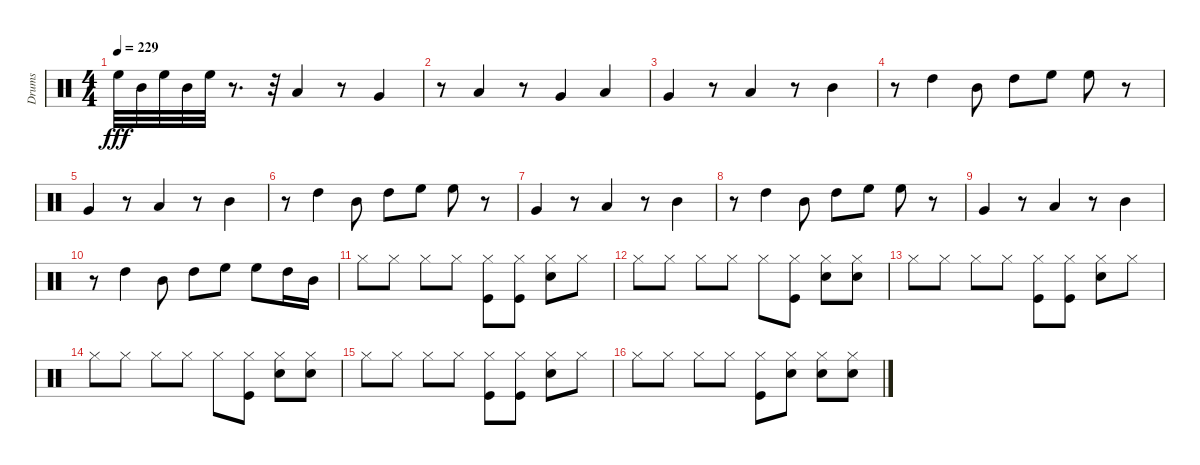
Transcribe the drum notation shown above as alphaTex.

\track ("Drums" "Drums") {instrument percussion}
\staff {score}
\articulation defaults
\ts (4 4)
\tempo 229
\clef neutral
\ks c "High Floor Tom (hit)".32{dy fff} "Mid Tom (hit)".32 "High Floor Tom (hit)".32 "Mid Tom (hit)".32 "High Floor Tom (hit)".32
r.8{d} r.32 "Low Tom (hit)".4 r.8 "Very Low Tom (hit)".4 |
r.8 "Low Floor Tom (hit)".4 r.8 "Very Low Tom (hit)".4 "Low Floor Tom (hit)".4 |
"Very Low Tom (hit)".4 r.8 "Low Tom (hit)".4 r.8 "Mid Tom (hit)".4 |
r.8 "High Tom (hit)".4 "Mid Tom (hit)".8 "High Tom (hit)".8 "High Floor Tom (hit)".8 "High Floor Tom (hit)".8 r.8 |
"Very Low Tom (hit)".4 r.8 "Low Tom (hit)".4 r.8 "Mid Tom (hit)".4 |
r.8 "High Tom (hit)".4 "Mid Tom (hit)".8 "High Tom (hit)".8 "High Floor Tom (hit)".8 "High Floor Tom (hit)".8 r.8 |
"Very Low Tom (hit)".4 r.8 "Low Tom (hit)".4 r.8 "Mid Tom (hit)".4 |
r.8 "High Tom (hit)".4 "Mid Tom (hit)".8 "High Tom (hit)".8 "High Floor Tom (hit)".8 "High Floor Tom (hit)".8 r.8 |
"Very Low Tom (hit)".4 r.8 "Low Tom (hit)".4 r.8 "Mid Tom (hit)".4 |
r.8 "High Tom (hit)".4 "Mid Tom (hit)".8 "High Tom (hit)".8 "High Floor Tom (hit)".8 "High Floor Tom (hit)".8 "High Tom (hit)".16 "Mid Tom (hit)".16 |
"Hi-Hat (closed)".8 "Hi-Hat (closed)".8 "Hi-Hat (closed)".8 "Hi-Hat (closed)".8 ("Hi-Hat (closed)" "Kick (hit)").8 ("Hi-Hat (closed)" "Kick (hit)").8 ("Electric Snare (hit)" "Hi-Hat (closed)").8 "Hi-Hat (closed)".8 |
"Hi-Hat (closed)".8 "Hi-Hat (closed)".8 "Hi-Hat (closed)".8 "Hi-Hat (closed)".8 "Hi-Hat (closed)".8 ("Hi-Hat (closed)" "Kick (hit)").8 ("Electric Snare (hit)" "Hi-Hat (closed)").8 ("Hi-Hat (closed)" "Electric Snare (hit)").8 |
"Hi-Hat (closed)".8 "Hi-Hat (closed)".8 "Hi-Hat (closed)".8 "Hi-Hat (closed)".8 ("Kick (hit)" "Hi-Hat (closed)").8 ("Kick (hit)" "Hi-Hat (closed)").8 ("Electric Snare (hit)" "Hi-Hat (closed)").8 "Hi-Hat (closed)".8 |
"Hi-Hat (closed)".8 "Hi-Hat (closed)".8 "Hi-Hat (closed)".8 "Hi-Hat (closed)".8 "Hi-Hat (closed)".8 ("Hi-Hat (closed)" "Kick (hit)").8 ("Electric Snare (hit)" "Hi-Hat (closed)").8 ("Hi-Hat (closed)" "Electric Snare (hit)").8 |
"Hi-Hat (closed)".8 "Hi-Hat (closed)".8 "Hi-Hat (closed)".8 "Hi-Hat (closed)".8 ("Hi-Hat (closed)" "Kick (hit)").8 ("Hi-Hat (closed)" "Kick (hit)").8 ("Electric Snare (hit)" "Hi-Hat (closed)").8 "Hi-Hat (closed)".8 |
"Hi-Hat (closed)".8 "Hi-Hat (closed)".8 "Hi-Hat (closed)".8 "Hi-Hat (closed)".8 ("Hi-Hat (closed)" "Kick (hit)").8 ("Hi-Hat (closed)" "Electric Snare (hit)").8 ("Electric Snare (hit)" "Hi-Hat (closed)").8 ("Hi-Hat (closed)" "Electric Snare (hit)").8
